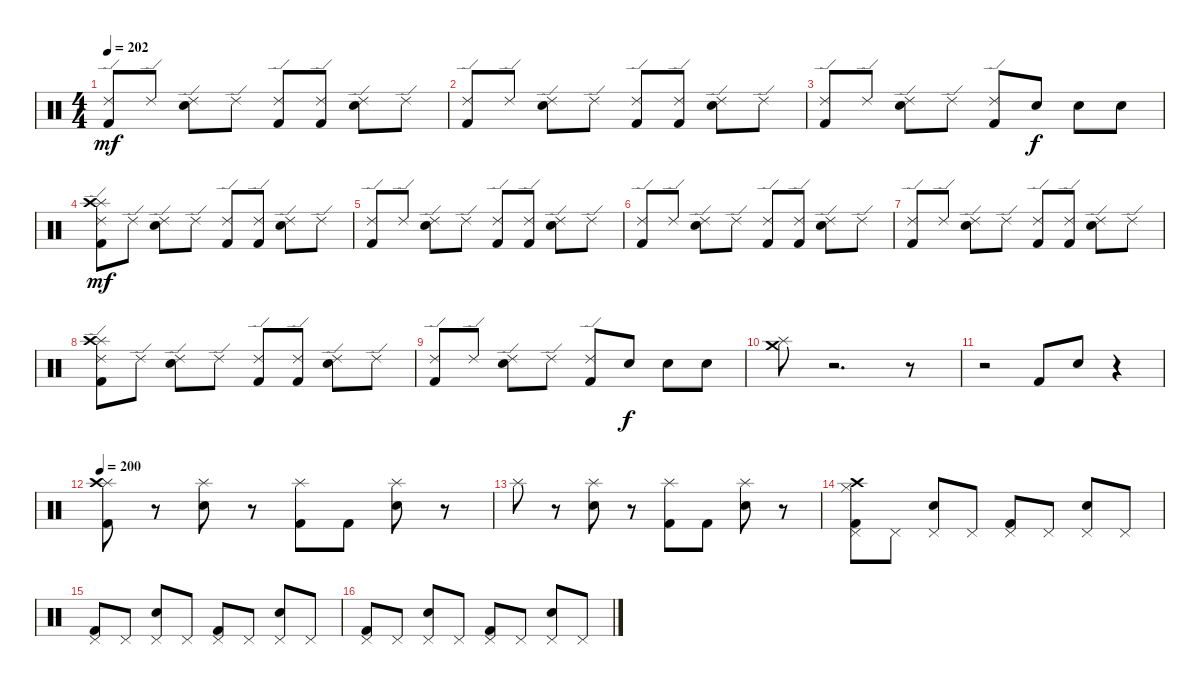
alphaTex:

\track "" {instrument percussion}
\staff {score}
\articulation defaults
\ts (4 4)
\tempo 202
\clef neutral
\ks c
("Ride (edge) 2" "Kick (hit) 2").8{dy mf} "Ride (edge) 2".8 ("Ride (edge) 2" "Electric Snare (hit)").8 "Ride (edge) 2".8 ("Ride (edge) 2" "Kick (hit) 2").8 ("Ride (edge) 2" "Kick (hit) 2").8 ("Ride (edge) 2" "Electric Snare (hit)").8 "Ride (edge) 2".8 |
("Ride (edge) 2" "Kick (hit) 2").8 "Ride (edge) 2".8 ("Ride (edge) 2" "Electric Snare (hit)").8 "Ride (edge) 2".8 ("Ride (edge) 2" "Kick (hit) 2").8 ("Ride (edge) 2" "Kick (hit) 2").8 ("Ride (edge) 2" "Electric Snare (hit)").8 "Ride (edge) 2".8 |
("Ride (edge) 2" "Kick (hit) 2").8 "Ride (edge) 2".8 ("Ride (edge) 2" "Electric Snare (hit)").8 "Ride (edge) 2".8 ("Ride (edge) 2" "Kick (hit) 2").8 "Electric Snare (hit)".8{dy f} "Electric Snare (hit)".8 "Electric Snare (hit)".8 |
("Splash (hit)" "Crash high (hit)" "Ride (edge) 2" "Kick (hit) 2").8{dy mf} "Ride (edge) 2".8 ("Ride (edge) 2" "Electric Snare (hit)").8 "Ride (edge) 2".8 ("Ride (edge) 2" "Kick (hit) 2").8 ("Ride (edge) 2" "Kick (hit) 2").8 ("Ride (edge) 2" "Electric Snare (hit)").8 "Ride (edge) 2".8 |
("Ride (edge) 2" "Kick (hit) 2").8 "Ride (edge) 2".8 ("Ride (edge) 2" "Electric Snare (hit)").8 "Ride (edge) 2".8 ("Ride (edge) 2" "Kick (hit) 2").8 ("Ride (edge) 2" "Kick (hit) 2").8 ("Ride (edge) 2" "Electric Snare (hit)").8 "Ride (edge) 2".8 |
("Ride (edge) 2" "Kick (hit) 2").8 "Ride (edge) 2".8 ("Ride (edge) 2" "Electric Snare (hit)").8 "Ride (edge) 2".8 ("Ride (edge) 2" "Kick (hit) 2").8 ("Ride (edge) 2" "Kick (hit) 2").8 ("Ride (edge) 2" "Electric Snare (hit)").8 "Ride (edge) 2".8 |
("Ride (edge) 2" "Kick (hit) 2").8 "Ride (edge) 2".8 ("Ride (edge) 2" "Electric Snare (hit)").8 "Ride (edge) 2".8 ("Ride (edge) 2" "Kick (hit) 2").8 ("Ride (edge) 2" "Kick (hit) 2").8 ("Ride (edge) 2" "Electric Snare (hit)").8 "Ride (edge) 2".8 |
("Splash (hit)" "Crash high (hit)" "Ride (edge) 2" "Kick (hit) 2").8 "Ride (edge) 2".8 ("Ride (edge) 2" "Electric Snare (hit)").8 "Ride (edge) 2".8 ("Ride (edge) 2" "Kick (hit) 2").8 ("Ride (edge) 2" "Kick (hit) 2").8 ("Ride (edge) 2" "Electric Snare (hit)").8 "Ride (edge) 2".8 |
("Ride (edge) 2" "Kick (hit) 2").8 "Ride (edge) 2".8 ("Ride (edge) 2" "Electric Snare (hit)").8 "Ride (edge) 2".8 ("Ride (edge) 2" "Kick (hit) 2").8 "Electric Snare (hit)".8{dy f} "Electric Snare (hit)".8 "Electric Snare (hit)".8 |
("Splash (hit)" "Crash medium (hit)").8 r.2{d} r.8 |
r.2 "Kick (hit) 2".8 "Electric Snare (hit)".8 r.4 |
\tempo 200
("Splash (hit)" "Crash high (hit)" "Kick (hit) 2").8 r.8 ("Splash (hit)" "Electric Snare (hit)").8 r.8 ("Splash (hit)" "Kick (hit) 2").8 "Kick (hit) 2".8 ("Splash (hit)" "Electric Snare (hit)").8 r.8 |
"Splash (hit)".8 r.8 ("Splash (hit)" "Electric Snare (hit)").8 r.8 ("Splash (hit)" "Kick (hit) 2").8 "Kick (hit) 2".8 ("Splash (hit)" "Electric Snare (hit)").8 r.8 |
("Pedal Hi-Hat (hit)" "Crash high (hit)" "Hi-Hat (closed)" "Kick (hit) 2").8 "Pedal Hi-Hat (hit)".8 ("Pedal Hi-Hat (hit)" "Electric Snare (hit)").8 "Pedal Hi-Hat (hit)".8 ("Pedal Hi-Hat (hit)" "Kick (hit) 2").8 "Pedal Hi-Hat (hit)".8 ("Pedal Hi-Hat (hit)" "Electric Snare (hit)").8 "Pedal Hi-Hat (hit)".8 |
("Pedal Hi-Hat (hit)" "Kick (hit) 2").8 "Pedal Hi-Hat (hit)".8 ("Pedal Hi-Hat (hit)" "Electric Snare (hit)").8 "Pedal Hi-Hat (hit)".8 ("Pedal Hi-Hat (hit)" "Kick (hit) 2").8 "Pedal Hi-Hat (hit)".8 ("Pedal Hi-Hat (hit)" "Electric Snare (hit)").8 "Pedal Hi-Hat (hit)".8 |
("Pedal Hi-Hat (hit)" "Kick (hit) 2").8 "Pedal Hi-Hat (hit)".8 ("Pedal Hi-Hat (hit)" "Electric Snare (hit)").8 "Pedal Hi-Hat (hit)".8 ("Pedal Hi-Hat (hit)" "Kick (hit) 2").8 "Pedal Hi-Hat (hit)".8 ("Pedal Hi-Hat (hit)" "Electric Snare (hit)").8 "Pedal Hi-Hat (hit)".8
